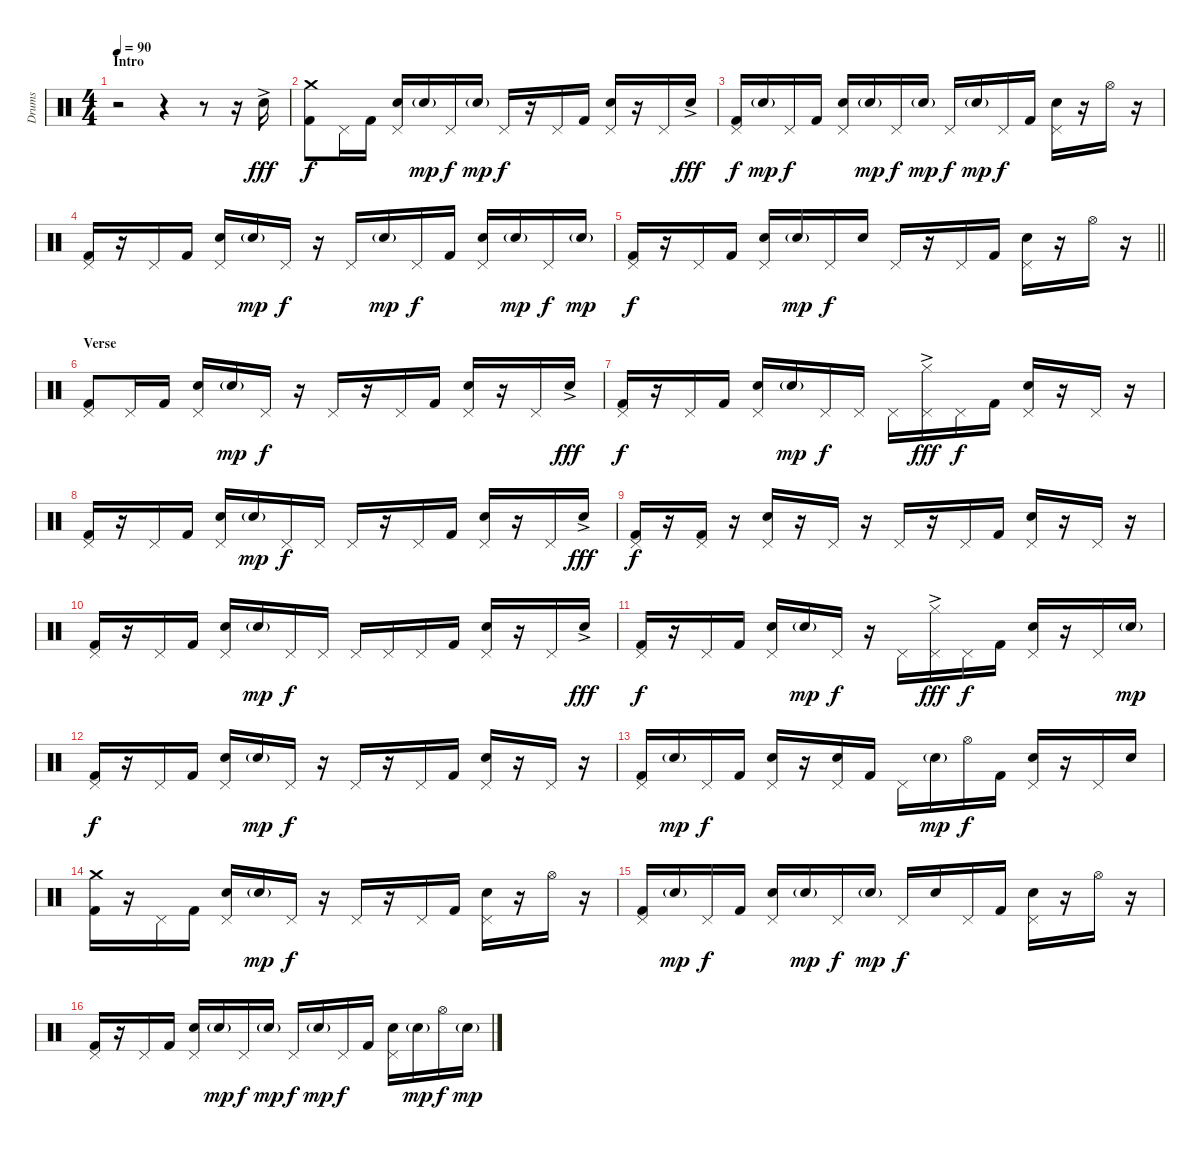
\track ("Drums" "Drums") {instrument percussion}
\staff {score}
\articulation defaults
\ts (4 4)
\section ("" "Intro")
\tempo 90
\clef neutral
\ks c
r.2{dy fff} r.4 r.8 r.16 "Electric Snare (hit)"{ac}.16 |
("Crash medium (hit)" "Kick (hit) 2").8{dy f} "Pedal Hi-Hat (hit)".16 "Kick (hit) 2".16 ("Pedal Hi-Hat (hit)" "Electric Snare (hit)").16 "Electric Snare (hit)"{g}.16{dy mp} "Pedal Hi-Hat (hit)".16{dy f} "Electric Snare (hit)"{g}.16{dy mp} "Pedal Hi-Hat (hit)".16{dy f} r.16 "Pedal Hi-Hat (hit)".16 "Kick (hit) 2".16 ("Pedal Hi-Hat (hit)" "Electric Snare (hit)").16 r.16 "Pedal Hi-Hat (hit)".16 "Electric Snare (hit)"{ac}.16{dy fff} |
("Pedal Hi-Hat (hit)" "Kick (hit) 2").16{dy f} "Electric Snare (hit)"{g}.16{dy mp} "Pedal Hi-Hat (hit)".16{dy f} "Kick (hit) 2".16 ("Pedal Hi-Hat (hit)" "Electric Snare (hit)").16 "Electric Snare (hit)"{g}.16{dy mp} "Pedal Hi-Hat (hit)".16{dy f} "Electric Snare (hit)"{g}.16{dy mp} "Pedal Hi-Hat (hit)".16{dy f} "Electric Snare (hit)"{g}.16{dy mp} "Pedal Hi-Hat (hit)".16{dy f} "Kick (hit) 2".16 ("Pedal Hi-Hat (hit)" "Electric Snare (hit)").16 r.16 "Hi-Hat (open)".16 r.16 |
("Pedal Hi-Hat (hit)" "Kick (hit) 2").16 r.16 "Pedal Hi-Hat (hit)".16 "Kick (hit) 2".16 ("Pedal Hi-Hat (hit)" "Electric Snare (hit)").16 "Electric Snare (hit)"{g}.16{dy mp} "Pedal Hi-Hat (hit)".16{dy f} r.16 "Pedal Hi-Hat (hit)".16 "Electric Snare (hit)"{g}.16{dy mp} "Pedal Hi-Hat (hit)".16{dy f} "Kick (hit) 2".16 ("Pedal Hi-Hat (hit)" "Electric Snare (hit)").16 "Electric Snare (hit)"{g}.16{dy mp} "Pedal Hi-Hat (hit)".16{dy f} "Electric Snare (hit)"{g}.16{dy mp} |
\barLineRight lightlight
("Pedal Hi-Hat (hit)" "Kick (hit) 2").16{dy f} r.16 "Pedal Hi-Hat (hit)".16 "Kick (hit) 2".16 ("Pedal Hi-Hat (hit)" "Electric Snare (hit)").16 "Electric Snare (hit)"{g}.16{dy mp} "Pedal Hi-Hat (hit)".16{dy f} "Electric Snare (hit)".16 "Pedal Hi-Hat (hit)".16 r.16 "Pedal Hi-Hat (hit)".16 "Kick (hit) 2".16 ("Pedal Hi-Hat (hit)" "Electric Snare (hit)").16 r.16 "Hi-Hat (open)".16 r.16 |
\section ("" "Verse")
("Pedal Hi-Hat (hit)" "Kick (hit) 2").8 "Pedal Hi-Hat (hit)".16 "Kick (hit) 2".16 ("Pedal Hi-Hat (hit)" "Electric Snare (hit)").16 "Electric Snare (hit)"{g}.16{dy mp} "Pedal Hi-Hat (hit)".16{dy f} r.16 "Pedal Hi-Hat (hit)".16 r.16 "Pedal Hi-Hat (hit)".16 "Kick (hit) 2".16 ("Pedal Hi-Hat (hit)" "Electric Snare (hit)").16 r.16 "Pedal Hi-Hat (hit)".16 "Electric Snare (hit)"{ac}.16{dy fff} |
("Pedal Hi-Hat (hit)" "Kick (hit) 2").16{dy f} r.16 "Pedal Hi-Hat (hit)".16 "Kick (hit) 2".16 ("Pedal Hi-Hat (hit)" "Electric Snare (hit)").16 "Electric Snare (hit)"{g}.16{dy mp} "Pedal Hi-Hat (hit)".16{dy f} "Pedal Hi-Hat (hit)".16 "Pedal Hi-Hat (hit)".16 ("Hi-Hat (closed)"{ac} "Pedal Hi-Hat (hit)"{ac}).16{dy fff} "Pedal Hi-Hat (hit)".16{dy f} "Kick (hit) 2".16 ("Pedal Hi-Hat (hit)" "Electric Snare (hit)").16 r.16 "Pedal Hi-Hat (hit)".16 r.16 |
("Pedal Hi-Hat (hit)" "Kick (hit) 2").16 r.16 "Pedal Hi-Hat (hit)".16 "Kick (hit) 2".16 ("Pedal Hi-Hat (hit)" "Electric Snare (hit)").16 "Electric Snare (hit)"{g}.16{dy mp} "Pedal Hi-Hat (hit)".16{dy f} "Pedal Hi-Hat (hit)".16 "Pedal Hi-Hat (hit)".16 r.16 "Pedal Hi-Hat (hit)".16 "Kick (hit) 2".16 ("Pedal Hi-Hat (hit)" "Electric Snare (hit)").16 r.16 "Pedal Hi-Hat (hit)".16 "Electric Snare (hit)"{ac}.16{dy fff} |
("Pedal Hi-Hat (hit)" "Kick (hit) 2").16{dy f} r.16 ("Pedal Hi-Hat (hit)" "Kick (hit) 2").16 r.16 ("Pedal Hi-Hat (hit)" "Electric Snare (hit)").16 r.16 "Pedal Hi-Hat (hit)".16 r.16 "Pedal Hi-Hat (hit)".16 r.16 "Pedal Hi-Hat (hit)".16 "Kick (hit) 2".16 ("Pedal Hi-Hat (hit)" "Electric Snare (hit)").16 r.16 "Pedal Hi-Hat (hit)".16 r.16 |
("Pedal Hi-Hat (hit)" "Kick (hit) 2").16 r.16 "Pedal Hi-Hat (hit)".16 "Kick (hit) 2".16 ("Pedal Hi-Hat (hit)" "Electric Snare (hit)").16 "Electric Snare (hit)"{g}.16{dy mp} "Pedal Hi-Hat (hit)".16{dy f} "Pedal Hi-Hat (hit)".16 "Pedal Hi-Hat (hit)".16 "Pedal Hi-Hat (hit)".16 "Pedal Hi-Hat (hit)".16 "Kick (hit) 2".16 ("Pedal Hi-Hat (hit)" "Electric Snare (hit)").16 r.16 "Pedal Hi-Hat (hit)".16 "Electric Snare (hit)"{ac}.16{dy fff} |
("Pedal Hi-Hat (hit)" "Kick (hit) 2").16{dy f} r.16 "Pedal Hi-Hat (hit)".16 "Kick (hit) 2".16 ("Pedal Hi-Hat (hit)" "Electric Snare (hit)").16 "Electric Snare (hit)"{g}.16{dy mp} "Pedal Hi-Hat (hit)".16{dy f} r.16 "Pedal Hi-Hat (hit)".16 ("Hi-Hat (closed)"{ac} "Pedal Hi-Hat (hit)"{ac}).16{dy fff} "Pedal Hi-Hat (hit)".16{dy f} "Kick (hit) 2".16 ("Pedal Hi-Hat (hit)" "Electric Snare (hit)").16 r.16 "Pedal Hi-Hat (hit)".16 "Electric Snare (hit)"{g}.16{dy mp} |
("Pedal Hi-Hat (hit)" "Kick (hit) 2").16{dy f} r.16 "Pedal Hi-Hat (hit)".16 "Kick (hit) 2".16 ("Pedal Hi-Hat (hit)" "Electric Snare (hit)").16 "Electric Snare (hit)"{g}.16{dy mp} "Pedal Hi-Hat (hit)".16{dy f} r.16 "Pedal Hi-Hat (hit)".16 r.16 "Pedal Hi-Hat (hit)".16 "Kick (hit) 2".16 ("Pedal Hi-Hat (hit)" "Electric Snare (hit)").16 r.16 "Pedal Hi-Hat (hit)".16 r.16 |
("Pedal Hi-Hat (hit)" "Kick (hit) 2").16 "Electric Snare (hit)"{g}.16{dy mp} "Pedal Hi-Hat (hit)".16{dy f} "Kick (hit) 2".16 ("Pedal Hi-Hat (hit)" "Electric Snare (hit)").16 r.16 ("Pedal Hi-Hat (hit)" "Electric Snare (hit)").16 "Kick (hit) 2".16 "Pedal Hi-Hat (hit)".16 "Electric Snare (hit)"{g}.16{dy mp} "Hi-Hat (open)".16{dy f} "Kick (hit) 2".16 ("Pedal Hi-Hat (hit)" "Electric Snare (hit)").16 r.16 "Pedal Hi-Hat (hit)".16 "Electric Snare (hit)".16 |
("Crash medium (hit)" "Kick (hit) 2").16 r.16 "Pedal Hi-Hat (hit)".16 "Kick (hit) 2".16 ("Pedal Hi-Hat (hit)" "Electric Snare (hit)").16 "Electric Snare (hit)"{g}.16{dy mp} "Pedal Hi-Hat (hit)".16{dy f} r.16 "Pedal Hi-Hat (hit)".16 r.16 "Pedal Hi-Hat (hit)".16 "Kick (hit) 2".16 ("Pedal Hi-Hat (hit)" "Electric Snare (hit)").16 r.16 "Hi-Hat (open)".16 r.16 |
("Pedal Hi-Hat (hit)" "Kick (hit) 2").16 "Electric Snare (hit)"{g}.16{dy mp} "Pedal Hi-Hat (hit)".16{dy f} "Kick (hit) 2".16 ("Pedal Hi-Hat (hit)" "Electric Snare (hit)").16 "Electric Snare (hit)"{g}.16{dy mp} "Pedal Hi-Hat (hit)".16{dy f} "Electric Snare (hit)"{g}.16{dy mp} "Pedal Hi-Hat (hit)".16{dy f} "Electric Snare (hit)".16 "Pedal Hi-Hat (hit)".16 "Kick (hit) 2".16 ("Pedal Hi-Hat (hit)" "Electric Snare (hit)").16 r.16 "Hi-Hat (open)".16 r.16 |
("Pedal Hi-Hat (hit)" "Kick (hit) 2").16 r.16 "Pedal Hi-Hat (hit)".16 "Kick (hit) 2".16 ("Pedal Hi-Hat (hit)" "Electric Snare (hit)").16 "Electric Snare (hit)"{g}.16{dy mp} "Pedal Hi-Hat (hit)".16{dy f} "Electric Snare (hit)"{g}.16{dy mp} "Pedal Hi-Hat (hit)".16{dy f} "Electric Snare (hit)"{g}.16{dy mp} "Pedal Hi-Hat (hit)".16{dy f} "Kick (hit) 2".16 ("Pedal Hi-Hat (hit)" "Electric Snare (hit)").16 "Electric Snare (hit)"{g}.16{dy mp} "Hi-Hat (open)".16{dy f} "Electric Snare (hit)"{g}.16{dy mp}
